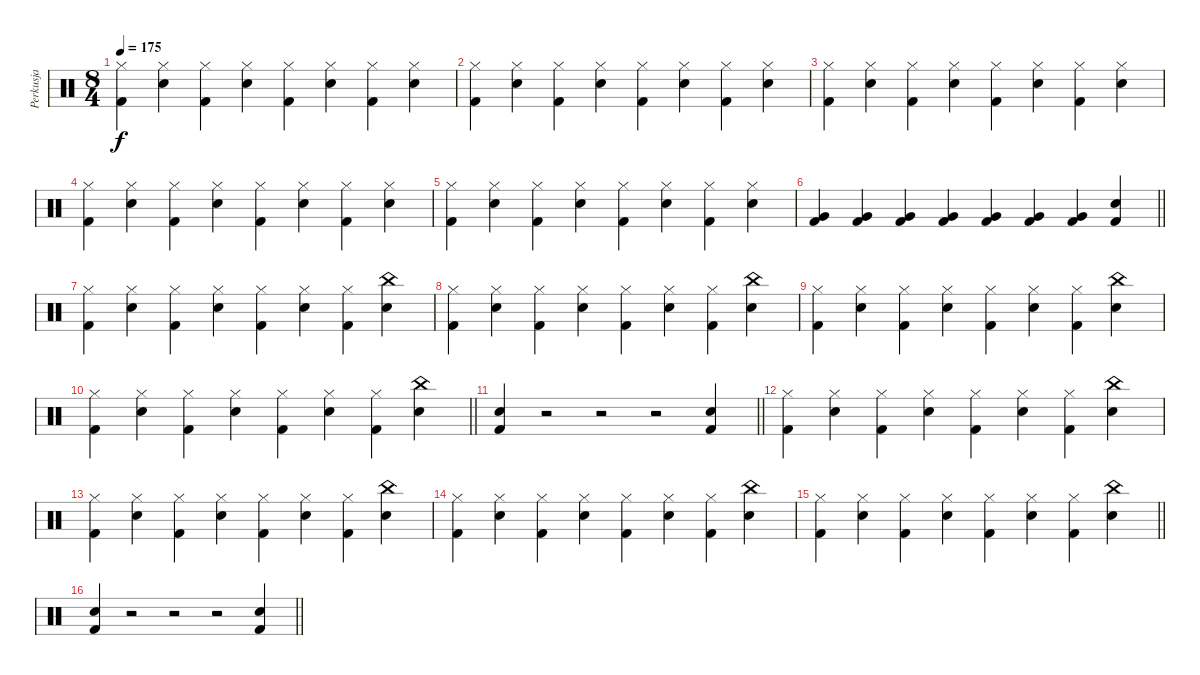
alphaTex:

\track ("Perkusja" "Perkusja") {instrument percussion}
\staff {score}
\articulation defaults
\ts (8 4)
\tempo 175
\clef neutral
\ks c
("Hi-Hat (closed)" "Kick (hit) 2").4{dy f} ("Hi-Hat (closed)" "Electric Snare (hit)").4 ("Hi-Hat (closed)" "Kick (hit) 2").4 ("Hi-Hat (closed)" "Electric Snare (hit)").4 ("Hi-Hat (closed)" "Kick (hit) 2").4 ("Hi-Hat (closed)" "Electric Snare (hit)").4 ("Hi-Hat (closed)" "Kick (hit) 2").4 ("Hi-Hat (closed)" "Electric Snare (hit)").4 |
("Hi-Hat (closed)" "Kick (hit) 2").4 ("Hi-Hat (closed)" "Electric Snare (hit)").4 ("Hi-Hat (closed)" "Kick (hit) 2").4 ("Hi-Hat (closed)" "Electric Snare (hit)").4 ("Hi-Hat (closed)" "Kick (hit) 2").4 ("Hi-Hat (closed)" "Electric Snare (hit)").4 ("Hi-Hat (closed)" "Kick (hit) 2").4 ("Hi-Hat (closed)" "Electric Snare (hit)").4 |
("Hi-Hat (closed)" "Kick (hit) 2").4 ("Hi-Hat (closed)" "Electric Snare (hit)").4 ("Hi-Hat (closed)" "Kick (hit) 2").4 ("Hi-Hat (closed)" "Electric Snare (hit)").4 ("Hi-Hat (closed)" "Kick (hit) 2").4 ("Hi-Hat (closed)" "Electric Snare (hit)").4 ("Hi-Hat (closed)" "Kick (hit) 2").4 ("Hi-Hat (closed)" "Electric Snare (hit)").4 |
("Hi-Hat (closed)" "Kick (hit) 2").4 ("Hi-Hat (closed)" "Electric Snare (hit)").4 ("Hi-Hat (closed)" "Kick (hit) 2").4 ("Hi-Hat (closed)" "Electric Snare (hit)").4 ("Hi-Hat (closed)" "Kick (hit) 2").4 ("Hi-Hat (closed)" "Electric Snare (hit)").4 ("Hi-Hat (closed)" "Kick (hit) 2").4 ("Hi-Hat (closed)" "Electric Snare (hit)").4 |
("Hi-Hat (closed)" "Kick (hit) 2").4 ("Hi-Hat (closed)" "Electric Snare (hit)").4 ("Hi-Hat (closed)" "Kick (hit) 2").4 ("Hi-Hat (closed)" "Electric Snare (hit)").4 ("Hi-Hat (closed)" "Kick (hit) 2").4 ("Hi-Hat (closed)" "Electric Snare (hit)").4 ("Hi-Hat (closed)" "Kick (hit) 2").4 ("Hi-Hat (closed)" "Electric Snare (hit)").4 |
\barLineRight lightlight
("Very Low Tom (hit)" "Kick (hit) 2").4 ("Very Low Tom (hit)" "Kick (hit) 2").4 ("Very Low Tom (hit)" "Kick (hit) 2").4 ("Very Low Tom (hit)" "Kick (hit) 2").4 ("Very Low Tom (hit)" "Kick (hit) 2").4 ("Very Low Tom (hit)" "Kick (hit) 2").4 ("Very Low Tom (hit)" "Kick (hit) 2").4 ("Electric Snare (hit)" "Kick (hit) 2").4 |
("Hi-Hat (closed)" "Kick (hit) 2").4 ("Hi-Hat (closed)" "Electric Snare (hit)").4 ("Hi-Hat (closed)" "Kick (hit) 2").4 ("Hi-Hat (closed)" "Electric Snare (hit)").4 ("Hi-Hat (closed)" "Kick (hit) 2").4 ("Hi-Hat (closed)" "Electric Snare (hit)").4 ("Hi-Hat (closed)" "Kick (hit) 2").4 ("China (hit)" "Electric Snare (hit)").4 |
("Hi-Hat (closed)" "Kick (hit) 2").4 ("Hi-Hat (closed)" "Electric Snare (hit)").4 ("Hi-Hat (closed)" "Kick (hit) 2").4 ("Hi-Hat (closed)" "Electric Snare (hit)").4 ("Hi-Hat (closed)" "Kick (hit) 2").4 ("Hi-Hat (closed)" "Electric Snare (hit)").4 ("Hi-Hat (closed)" "Kick (hit) 2").4 ("China (hit)" "Electric Snare (hit)").4 |
("Hi-Hat (closed)" "Kick (hit) 2").4 ("Hi-Hat (closed)" "Electric Snare (hit)").4 ("Hi-Hat (closed)" "Kick (hit) 2").4 ("Hi-Hat (closed)" "Electric Snare (hit)").4 ("Hi-Hat (closed)" "Kick (hit) 2").4 ("Hi-Hat (closed)" "Electric Snare (hit)").4 ("Hi-Hat (closed)" "Kick (hit) 2").4 ("China (hit)" "Electric Snare (hit)").4 |
\barLineRight lightlight
("Hi-Hat (closed)" "Kick (hit) 2").4 ("Hi-Hat (closed)" "Electric Snare (hit)").4 ("Hi-Hat (closed)" "Kick (hit) 2").4 ("Hi-Hat (closed)" "Electric Snare (hit)").4 ("Hi-Hat (closed)" "Kick (hit) 2").4 ("Hi-Hat (closed)" "Electric Snare (hit)").4 ("Hi-Hat (closed)" "Kick (hit) 2").4 ("China (hit)" "Electric Snare (hit)").4 |
\barLineRight lightlight
("Electric Snare (hit)" "Kick (hit) 2").4 r.2 r.2 r.2 ("Electric Snare (hit)" "Kick (hit) 2").4 |
("Hi-Hat (closed)" "Kick (hit) 2").4 ("Hi-Hat (closed)" "Electric Snare (hit)").4 ("Hi-Hat (closed)" "Kick (hit) 2").4 ("Hi-Hat (closed)" "Electric Snare (hit)").4 ("Hi-Hat (closed)" "Kick (hit) 2").4 ("Hi-Hat (closed)" "Electric Snare (hit)").4 ("Hi-Hat (closed)" "Kick (hit) 2").4 ("China (hit)" "Electric Snare (hit)").4 |
("Hi-Hat (closed)" "Kick (hit) 2").4 ("Hi-Hat (closed)" "Electric Snare (hit)").4 ("Hi-Hat (closed)" "Kick (hit) 2").4 ("Hi-Hat (closed)" "Electric Snare (hit)").4 ("Hi-Hat (closed)" "Kick (hit) 2").4 ("Hi-Hat (closed)" "Electric Snare (hit)").4 ("Hi-Hat (closed)" "Kick (hit) 2").4 ("China (hit)" "Electric Snare (hit)").4 |
("Hi-Hat (closed)" "Kick (hit) 2").4 ("Hi-Hat (closed)" "Electric Snare (hit)").4 ("Hi-Hat (closed)" "Kick (hit) 2").4 ("Hi-Hat (closed)" "Electric Snare (hit)").4 ("Hi-Hat (closed)" "Kick (hit) 2").4 ("Hi-Hat (closed)" "Electric Snare (hit)").4 ("Hi-Hat (closed)" "Kick (hit) 2").4 ("China (hit)" "Electric Snare (hit)").4 |
\barLineRight lightlight
("Hi-Hat (closed)" "Kick (hit) 2").4 ("Hi-Hat (closed)" "Electric Snare (hit)").4 ("Hi-Hat (closed)" "Kick (hit) 2").4 ("Hi-Hat (closed)" "Electric Snare (hit)").4 ("Hi-Hat (closed)" "Kick (hit) 2").4 ("Hi-Hat (closed)" "Electric Snare (hit)").4 ("Hi-Hat (closed)" "Kick (hit) 2").4 ("China (hit)" "Electric Snare (hit)").4 |
\barLineRight lightlight
("Electric Snare (hit)" "Kick (hit) 2").4 r.2 r.2 r.2 ("Electric Snare (hit)" "Kick (hit) 2").4
